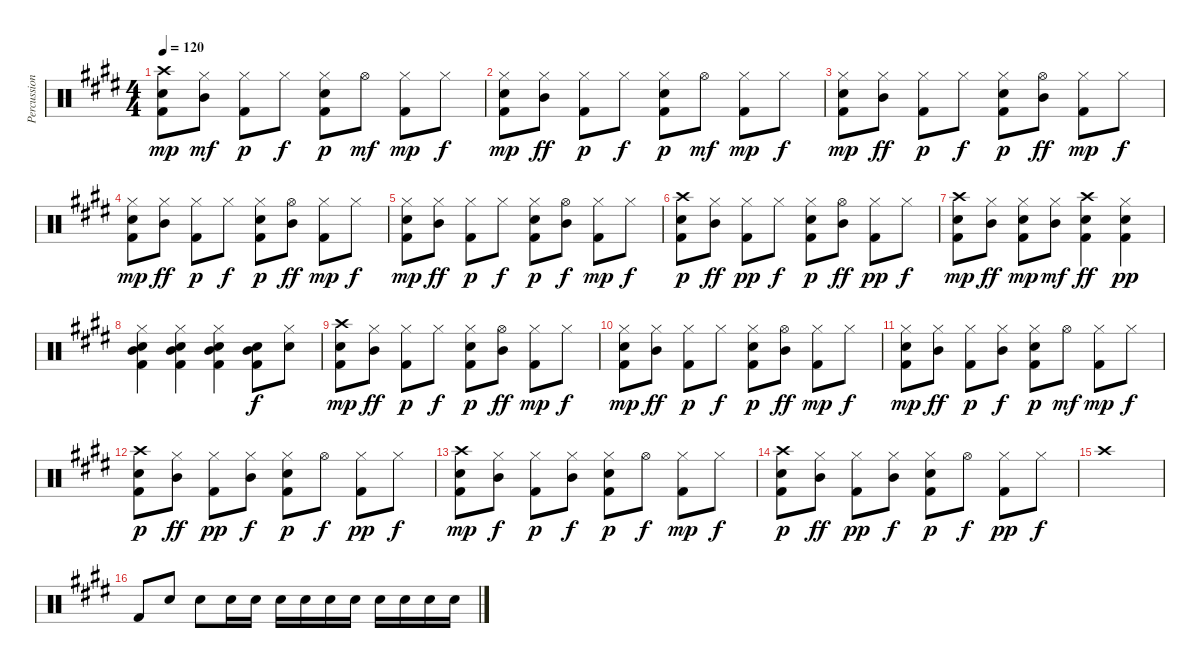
\track ("Percussion" "Percussion") {instrument percussion}
\staff {score}
\articulation defaults
\ts (4 4)
\tempo 120
\clef neutral
\ks e
("Crash high (hit)" "Snare (hit) 2" "Kick (hit) 2").8{dy mp} ("Hi-Hat (closed)" "Mid Tom (hit)").8{dy mf} ("Hi-Hat (closed)" "Kick (hit) 2").8{dy p} "Hi-Hat (closed)".8{dy f} ("Hi-Hat (closed)" "Snare (hit) 2" "Kick (hit) 2").8{dy p} "Hi-Hat (open)".8{dy mf} ("Hi-Hat (closed)" "Kick (hit) 2").8{dy mp} "Hi-Hat (closed)".8{dy f} |
("Hi-Hat (closed)" "Snare (hit) 2" "Kick (hit) 2").8{dy mp} ("Hi-Hat (closed)" "Mid Tom (hit)").8{dy ff} ("Hi-Hat (closed)" "Kick (hit) 2").8{dy p} "Hi-Hat (closed)".8{dy f} ("Hi-Hat (closed)" "Snare (hit) 2" "Kick (hit) 2").8{dy p} "Hi-Hat (open)".8{dy mf} ("Hi-Hat (closed)" "Kick (hit) 2").8{dy mp} "Hi-Hat (closed)".8{dy f} |
("Hi-Hat (closed)" "Snare (hit) 2" "Kick (hit) 2").8{dy mp} ("Hi-Hat (closed)" "Mid Tom (hit)").8{dy ff} ("Hi-Hat (closed)" "Kick (hit) 2").8{dy p} "Hi-Hat (closed)".8{dy f} ("Hi-Hat (closed)" "Snare (hit) 2" "Kick (hit) 2").8{dy p} ("Hi-Hat (open)" "Mid Tom (hit)").8{dy ff} ("Hi-Hat (closed)" "Kick (hit) 2").8{dy mp} "Hi-Hat (closed)".8{dy f} |
("Hi-Hat (closed)" "Snare (hit) 2" "Kick (hit) 2").8{dy mp} ("Hi-Hat (closed)" "Mid Tom (hit)").8{dy ff} ("Hi-Hat (closed)" "Kick (hit) 2").8{dy p} "Hi-Hat (closed)".8{dy f} ("Hi-Hat (closed)" "Snare (hit) 2" "Kick (hit) 2").8{dy p} ("Hi-Hat (open)" "Mid Tom (hit)").8{dy ff} ("Hi-Hat (closed)" "Kick (hit) 2").8{dy mp} "Hi-Hat (closed)".8{dy f} |
("Hi-Hat (closed)" "Snare (hit) 2" "Kick (hit) 2").8{dy mp} ("Hi-Hat (closed)" "Mid Tom (hit)").8{dy ff} ("Hi-Hat (closed)" "Kick (hit) 2").8{dy p} "Hi-Hat (closed)".8{dy f} ("Hi-Hat (closed)" "Snare (hit) 2" "Kick (hit) 2").8{dy p} ("Hi-Hat (open)" "Mid Tom (hit)").8{dy f} ("Hi-Hat (closed)" "Kick (hit) 2").8{dy mp} "Hi-Hat (closed)".8{dy f} |
("Crash high (hit)" "Snare (hit) 2" "Kick (hit) 2").8{dy p} ("Hi-Hat (closed)" "Mid Tom (hit)").8{dy ff} ("Hi-Hat (closed)" "Kick (hit) 2").8{dy pp} "Hi-Hat (closed)".8{dy f} ("Hi-Hat (closed)" "Snare (hit) 2" "Kick (hit) 2").8{dy p} ("Hi-Hat (open)" "Mid Tom (hit)").8{dy ff} ("Hi-Hat (closed)" "Kick (hit) 2").8{dy pp} "Hi-Hat (closed)".8{dy f} |
("Crash high (hit)" "Snare (hit) 2" "Kick (hit) 2").8{dy mp} ("Hi-Hat (closed)" "Mid Tom (hit)").8{dy ff} ("Hi-Hat (closed)" "Snare (hit) 2" "Kick (hit) 2").8{dy mp} ("Hi-Hat (closed)" "Mid Tom (hit)").8{dy mf} ("Crash high (hit)" "Snare (hit) 2" "Kick (hit) 2").4{dy ff} ("Hi-Hat (closed)" "Snare (hit) 2" "Kick (hit) 2").4{dy pp} |
("Hi-Hat (closed)" "Mid Tom (hit)" "Snare (hit) 2" "Kick (hit) 2").4 ("Hi-Hat (closed)" "Mid Tom (hit)" "Snare (hit) 2" "Kick (hit) 2").4 ("Hi-Hat (closed)" "Mid Tom (hit)" "Snare (hit) 2" "Kick (hit) 2").4 ("Mid Tom (hit)" "Snare (hit) 2" "Kick (hit) 2").8{dy f} ("Hi-Hat (closed)" "Snare (hit) 2").8 |
("Crash high (hit)" "Snare (hit) 2" "Kick (hit) 2").8{dy mp} ("Hi-Hat (closed)" "Mid Tom (hit)").8{dy ff} ("Hi-Hat (closed)" "Kick (hit) 2").8{dy p} "Hi-Hat (closed)".8{dy f} ("Hi-Hat (closed)" "Snare (hit) 2" "Kick (hit) 2").8{dy p} ("Hi-Hat (open)" "Mid Tom (hit)").8{dy ff} ("Hi-Hat (closed)" "Kick (hit) 2").8{dy mp} "Hi-Hat (closed)".8{dy f} |
("Hi-Hat (closed)" "Snare (hit) 2" "Kick (hit) 2").8{dy mp} ("Hi-Hat (closed)" "Mid Tom (hit)").8{dy ff} ("Hi-Hat (closed)" "Kick (hit) 2").8{dy p} "Hi-Hat (closed)".8{dy f} ("Hi-Hat (closed)" "Snare (hit) 2" "Kick (hit) 2").8{dy p} ("Hi-Hat (open)" "Mid Tom (hit)").8{dy ff} ("Hi-Hat (closed)" "Kick (hit) 2").8{dy mp} "Hi-Hat (closed)".8{dy f} |
("Hi-Hat (closed)" "Snare (hit) 2" "Kick (hit) 2").8{dy mp} ("Hi-Hat (closed)" "Mid Tom (hit)").8{dy ff} ("Hi-Hat (closed)" "Kick (hit) 2").8{dy p} ("Hi-Hat (closed)" "Mid Tom (hit)").8{dy f} ("Hi-Hat (closed)" "Snare (hit) 2" "Kick (hit) 2").8{dy p} "Hi-Hat (open)".8{dy mf} ("Hi-Hat (closed)" "Kick (hit) 2").8{dy mp} "Hi-Hat (closed)".8{dy f} |
("Crash high (hit)" "Snare (hit) 2" "Kick (hit) 2").8{dy p} ("Hi-Hat (closed)" "Mid Tom (hit)").8{dy ff} ("Hi-Hat (closed)" "Kick (hit) 2").8{dy pp} ("Hi-Hat (closed)" "Mid Tom (hit)").8{dy f} ("Hi-Hat (closed)" "Snare (hit) 2" "Kick (hit) 2").8{dy p} "Hi-Hat (open)".8{dy f} ("Hi-Hat (closed)" "Kick (hit) 2").8{dy pp} "Hi-Hat (closed)".8{dy f} |
("Crash high (hit)" "Snare (hit) 2" "Kick (hit) 2").8{dy mp} ("Hi-Hat (closed)" "Mid Tom (hit)").8{dy f} ("Hi-Hat (closed)" "Kick (hit) 2").8{dy p} ("Hi-Hat (closed)" "Mid Tom (hit)").8{dy f} ("Hi-Hat (closed)" "Snare (hit) 2" "Kick (hit) 2").8{dy p} "Hi-Hat (open)".8{dy f} ("Hi-Hat (closed)" "Kick (hit) 2").8{dy mp} "Hi-Hat (closed)".8{dy f} |
("Crash high (hit)" "Snare (hit) 2" "Kick (hit) 2").8{dy p} ("Hi-Hat (closed)" "Mid Tom (hit)").8{dy ff} ("Hi-Hat (closed)" "Kick (hit) 2").8{dy pp} ("Hi-Hat (closed)" "Mid Tom (hit)").8{dy f} ("Hi-Hat (closed)" "Snare (hit) 2" "Kick (hit) 2").8{dy p} "Hi-Hat (open)".8{dy f} ("Hi-Hat (closed)" "Kick (hit) 2").8{dy pp} "Hi-Hat (closed)".8{dy f} |
"Crash high (hit)".1 |
"Kick (hit) 2".8 "Snare (hit) 2".8 "Snare (hit) 2".8 "Snare (hit) 2".16 "Snare (hit) 2".16 "Snare (hit) 2".16 "Snare (hit) 2".16 "Snare (hit) 2".16 "Snare (hit) 2".16 "Snare (hit) 2".16 "Snare (hit) 2".16 "Snare (hit) 2".16 "Snare (hit) 2".16
